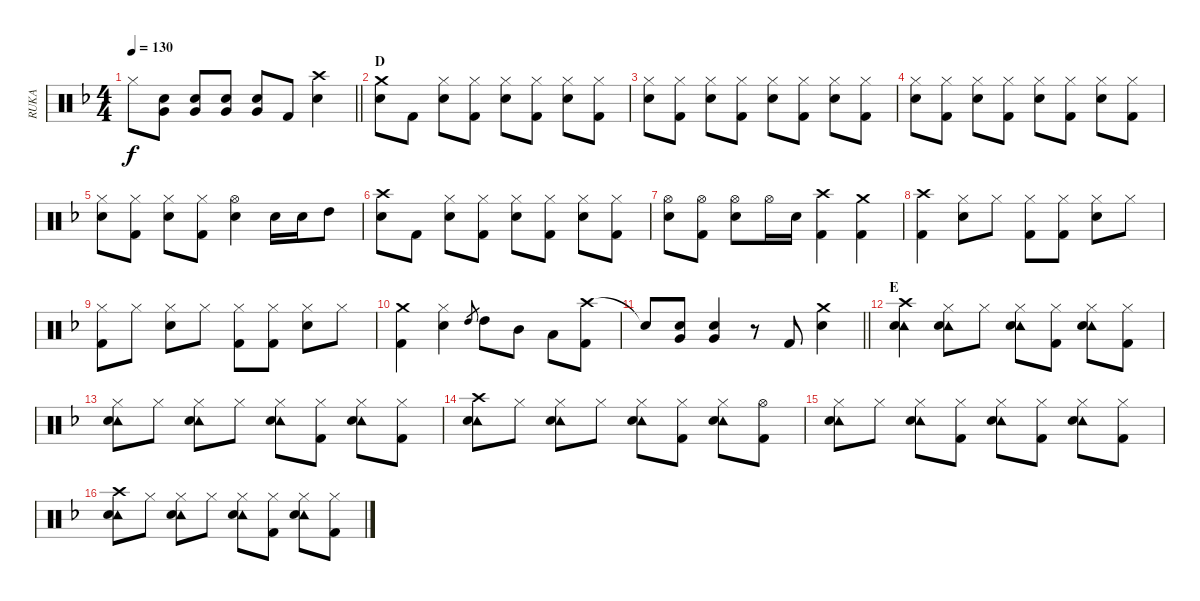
\track ("RUKA" "RUKA") {instrument percussion}
\staff {score}
\articulation defaults
\ts (4 4)
\tempo 130
\clef neutral
\barLineRight lightlight
\ks f "Hi-Hat (closed)".8{dy f}
("Snare (hit) 2" "Very Low Tom (hit)").8 ("Snare (hit) 2" "Very Low Tom (hit)").8 ("Snare (hit) 2" "Very Low Tom (hit)").8 ("Snare (hit) 2" "Very Low Tom (hit)").8 "Kick (hit) 2".8 ("Crash high (hit)" "Snare (hit) 2").4 |
\section ("" "D")
("Crash medium (hit)" "Snare (hit) 2").8 "Kick (hit) 2".8 ("Hi-Hat (closed)" "Snare (hit) 2").8 ("Hi-Hat (closed)" "Kick (hit) 2").8 ("Hi-Hat (closed)" "Snare (hit) 2").8 ("Hi-Hat (closed)" "Kick (hit) 2").8 ("Hi-Hat (closed)" "Snare (hit) 2").8 ("Hi-Hat (closed)" "Kick (hit) 2").8 |
("Hi-Hat (closed)" "Snare (hit) 2").8 ("Hi-Hat (closed)" "Kick (hit) 2").8 ("Hi-Hat (closed)" "Snare (hit) 2").8 ("Hi-Hat (closed)" "Kick (hit) 2").8 ("Hi-Hat (closed)" "Snare (hit) 2").8 ("Hi-Hat (closed)" "Kick (hit) 2").8 ("Hi-Hat (closed)" "Snare (hit) 2").8 ("Hi-Hat (closed)" "Kick (hit) 2").8 |
("Hi-Hat (closed)" "Snare (hit) 2").8 ("Hi-Hat (closed)" "Kick (hit) 2").8 ("Hi-Hat (closed)" "Snare (hit) 2").8 ("Hi-Hat (closed)" "Kick (hit) 2").8 ("Hi-Hat (closed)" "Snare (hit) 2").8 ("Hi-Hat (closed)" "Kick (hit) 2").8 ("Hi-Hat (closed)" "Snare (hit) 2").8 ("Hi-Hat (closed)" "Kick (hit) 2").8 |
("Hi-Hat (closed)" "Snare (hit) 2").8 ("Hi-Hat (closed)" "Kick (hit) 2").8 ("Hi-Hat (closed)" "Snare (hit) 2").8 ("Hi-Hat (closed)" "Kick (hit) 2").8 ("Hi-Hat (open)" "Snare (hit) 2").4 "Snare (hit) 2".16 "Snare (hit) 2".16 "High Tom (hit)".8 |
("Crash high (hit)" "Snare (hit) 2").8 "Kick (hit) 2".8 ("Hi-Hat (closed)" "Snare (hit) 2").8 ("Hi-Hat (closed)" "Kick (hit) 2").8 ("Hi-Hat (closed)" "Snare (hit) 2").8 ("Hi-Hat (closed)" "Kick (hit) 2").8 ("Hi-Hat (closed)" "Snare (hit) 2").8 ("Hi-Hat (closed)" "Kick (hit) 2").8 |
("Hi-Hat (open)" "Snare (hit) 2").8 ("Hi-Hat (open)" "Kick (hit) 2").8 ("Hi-Hat (open)" "Snare (hit) 2").8 "Hi-Hat (open)".16 "Snare (hit) 2".16 ("Crash high (hit)" "Kick (hit) 2").4 ("Crash medium (hit)" "Kick (hit) 2").4 |
("Crash high (hit)" "Kick (hit) 2").4 ("Hi-Hat (closed)" "Snare (hit) 2").8 "Hi-Hat (closed)".8 ("Hi-Hat (closed)" "Kick (hit) 2").8 ("Hi-Hat (closed)" "Kick (hit) 2").8 ("Hi-Hat (closed)" "Snare (hit) 2").8 "Hi-Hat (closed)".8 |
("Hi-Hat (closed)" "Kick (hit) 2").8 "Hi-Hat (closed)".8 ("Hi-Hat (closed)" "Snare (hit) 2").8 "Hi-Hat (closed)".8 ("Hi-Hat (closed)" "Kick (hit) 2").8 ("Hi-Hat (closed)" "Kick (hit) 2").8 ("Hi-Hat (closed)" "Snare (hit) 2").8 "Hi-Hat (closed)".8 |
("Crash medium (hit)" "Kick (hit) 2").4 ("Hi-Hat (closed)" "Snare (hit) 2").4 "High Tom (hit)".8{gr} "High Tom (hit)".8 "Mid Tom (hit)".8 "Low Tom (hit)".8 ("Crash high (hit)" "Kick (hit) 2").8 |
\barLineRight lightlight "Snare (hit)"{t}.8
("Snare (hit) 2" "Very Low Tom (hit)").8 ("Snare (hit) 2" "Very Low Tom (hit)").4 r.8 "Kick (hit) 2".8 ("Crash medium (hit)" "Snare (hit) 2").4 |
\section ("" "E")
("Crash high (hit)" "Tambourine (hit)" "Snare (hit) 2").4 ("Hi-Hat (closed)" "Tambourine (hit)" "Snare (hit) 2").8 "Hi-Hat (closed)".8 ("Hi-Hat (closed)" "Tambourine (hit)" "Snare (hit) 2").8 ("Hi-Hat (closed)" "Kick (hit) 2").8 ("Hi-Hat (closed)" "Tambourine (hit)" "Snare (hit) 2").8 ("Hi-Hat (closed)" "Kick (hit) 2").8 |
("Hi-Hat (closed)" "Tambourine (hit)" "Snare (hit) 2").8 "Hi-Hat (closed)".8 ("Hi-Hat (closed)" "Tambourine (hit)" "Snare (hit) 2").8 "Hi-Hat (closed)".8 ("Hi-Hat (closed)" "Tambourine (hit)" "Snare (hit) 2").8 ("Hi-Hat (closed)" "Kick (hit) 2").8 ("Hi-Hat (closed)" "Tambourine (hit)" "Snare (hit) 2").8 ("Hi-Hat (closed)" "Kick (hit) 2").8 |
("Crash high (hit)" "Tambourine (hit)" "Snare (hit) 2").8 "Hi-Hat (closed)".8 ("Hi-Hat (closed)" "Tambourine (hit)" "Snare (hit) 2").8 "Hi-Hat (closed)".8 ("Hi-Hat (closed)" "Tambourine (hit)" "Snare (hit) 2").8 ("Hi-Hat (closed)" "Kick (hit) 2").8 ("Hi-Hat (closed)" "Tambourine (hit)" "Snare (hit) 2").8 ("Hi-Hat (open)" "Kick (hit) 2").8 |
("Hi-Hat (closed)" "Tambourine (hit)" "Snare (hit) 2").8 "Hi-Hat (closed)".8 ("Hi-Hat (closed)" "Tambourine (hit)" "Snare (hit) 2").8 ("Hi-Hat (closed)" "Kick (hit) 2").8 ("Hi-Hat (closed)" "Tambourine (hit)" "Snare (hit) 2").8 ("Hi-Hat (closed)" "Kick (hit) 2").8 ("Hi-Hat (closed)" "Tambourine (hit)" "Snare (hit) 2").8 ("Hi-Hat (closed)" "Kick (hit) 2").8 |
("Crash high (hit)" "Tambourine (hit)" "Snare (hit) 2").8 "Hi-Hat (closed)".8 ("Hi-Hat (closed)" "Tambourine (hit)" "Snare (hit) 2").8 "Hi-Hat (closed)".8 ("Hi-Hat (closed)" "Tambourine (hit)" "Snare (hit) 2").8 ("Hi-Hat (closed)" "Kick (hit) 2").8 ("Hi-Hat (closed)" "Tambourine (hit)" "Snare (hit) 2").8 ("Hi-Hat (closed)" "Kick (hit) 2").8
